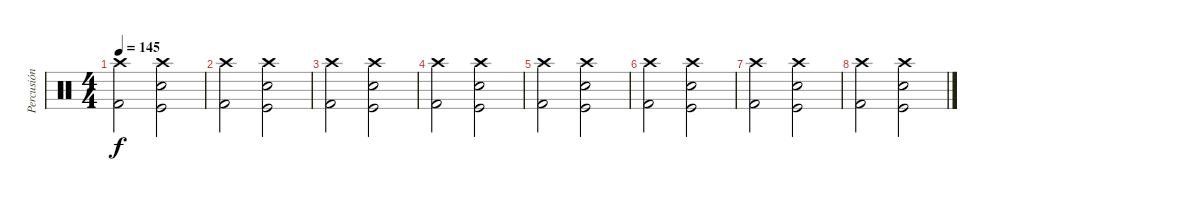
\track ("Percusión" "Percusión") {instrument percussion}
\staff {score}
\articulation defaults
\ts (4 4)
\tempo 145
\clef neutral
\ks c
("Crash high (hit)" "Kick (hit) 2").2{dy f} ("Crash high (hit)" "Electric Snare (hit)" "Kick (hit)").2 |
("Crash high (hit)" "Kick (hit) 2").2 ("Crash high (hit)" "Electric Snare (hit)" "Kick (hit)").2 |
("Crash high (hit)" "Kick (hit) 2").2 ("Crash high (hit)" "Electric Snare (hit)" "Kick (hit)").2 |
("Crash high (hit)" "Kick (hit) 2").2 ("Crash high (hit)" "Electric Snare (hit)" "Kick (hit)").2 |
("Crash high (hit)" "Kick (hit) 2").2 ("Crash high (hit)" "Electric Snare (hit)" "Kick (hit)").2 |
("Crash high (hit)" "Kick (hit) 2").2 ("Crash high (hit)" "Electric Snare (hit)" "Kick (hit)").2 |
("Crash high (hit)" "Kick (hit) 2").2 ("Crash high (hit)" "Electric Snare (hit)" "Kick (hit)").2 |
("Crash high (hit)" "Kick (hit) 2").2 ("Crash high (hit)" "Electric Snare (hit)" "Kick (hit)").2
